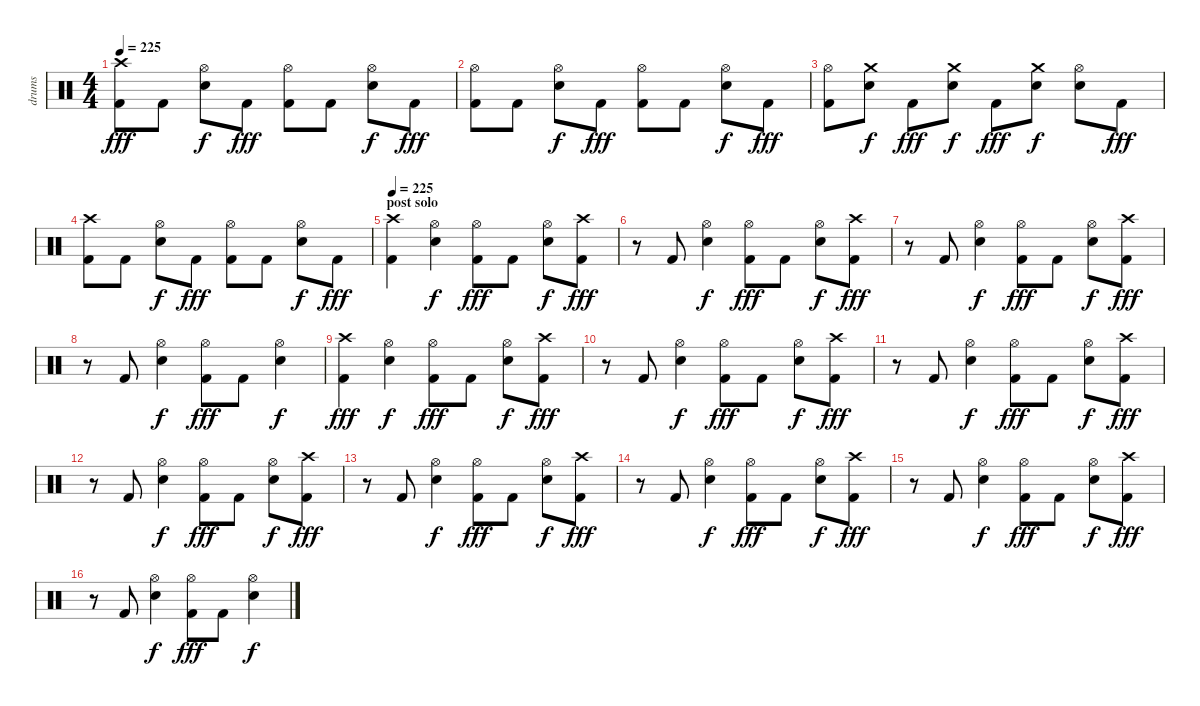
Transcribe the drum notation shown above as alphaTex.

\track ("drums" "drums") {instrument percussion}
\staff {score}
\articulation defaults
\ts (4 4)
\tempo 225
\clef neutral
\ks c
("Crash high (hit)" "Kick (hit) 2").8{dy fff} "Kick (hit) 2".8 ("Hi-Hat (open)" "Snare (hit) 2").8{dy f} "Kick (hit) 2".8{dy fff} ("Hi-Hat (open)" "Kick (hit) 2").8 "Kick (hit) 2".8 ("Hi-Hat (open)" "Snare (hit) 2").8{dy f} "Kick (hit) 2".8{dy fff} |
("Hi-Hat (open)" "Kick (hit) 2").8 "Kick (hit) 2".8 ("Hi-Hat (open)" "Snare (hit) 2").8{dy f} "Kick (hit) 2".8{dy fff} ("Hi-Hat (open)" "Kick (hit) 2").8 "Kick (hit) 2".8 ("Hi-Hat (open)" "Snare (hit) 2").8{dy f} "Kick (hit) 2".8{dy fff} |
("Hi-Hat (open)" "Kick (hit) 2").8 ("Crash medium (hit)" "Snare (hit) 2").8{dy f} "Kick (hit) 2".8{dy fff} ("Crash medium (hit)" "Snare (hit) 2").8{dy f} "Kick (hit) 2".8{dy fff} ("Crash medium (hit)" "Snare (hit) 2").8{dy f} ("Hi-Hat (open)" "Snare (hit) 2").8 "Kick (hit) 2".8{dy fff} |
("Crash high (hit)" "Kick (hit) 2").8 "Kick (hit) 2".8 ("Hi-Hat (open)" "Snare (hit) 2").8{dy f} "Kick (hit) 2".8{dy fff} ("Hi-Hat (open)" "Kick (hit) 2").8 "Kick (hit) 2".8 ("Hi-Hat (open)" "Snare (hit) 2").8{dy f} "Kick (hit) 2".8{dy fff} |
\section ("" "post solo")
\tempo 225
("Crash high (hit)" "Kick (hit) 2").4 ("Hi-Hat (open)" "Snare (hit) 2").4{dy f} ("Hi-Hat (open)" "Kick (hit) 2").8{dy fff} "Kick (hit) 2".8 ("Hi-Hat (open)" "Snare (hit) 2").8{dy f} ("Crash high (hit)" "Kick (hit) 2").8{dy fff} |
r.8 "Kick (hit) 2".8 ("Hi-Hat (open)" "Snare (hit) 2").4{dy f} ("Hi-Hat (open)" "Kick (hit) 2").8{dy fff} "Kick (hit) 2".8 ("Hi-Hat (open)" "Snare (hit) 2").8{dy f} ("Crash high (hit)" "Kick (hit) 2").8{dy fff} |
r.8 "Kick (hit) 2".8 ("Hi-Hat (open)" "Snare (hit) 2").4{dy f} ("Hi-Hat (open)" "Kick (hit) 2").8{dy fff} "Kick (hit) 2".8 ("Hi-Hat (open)" "Snare (hit) 2").8{dy f} ("Crash high (hit)" "Kick (hit) 2").8{dy fff} |
r.8 "Kick (hit) 2".8 ("Hi-Hat (open)" "Snare (hit) 2").4{dy f} ("Hi-Hat (open)" "Kick (hit) 2").8{dy fff} "Kick (hit) 2".8 ("Hi-Hat (open)" "Snare (hit) 2").4{dy f} |
("Crash high (hit)" "Kick (hit) 2").4{dy fff} ("Hi-Hat (open)" "Snare (hit) 2").4{dy f} ("Hi-Hat (open)" "Kick (hit) 2").8{dy fff} "Kick (hit) 2".8 ("Hi-Hat (open)" "Snare (hit) 2").8{dy f} ("Crash high (hit)" "Kick (hit) 2").8{dy fff} |
r.8 "Kick (hit) 2".8 ("Hi-Hat (open)" "Snare (hit) 2").4{dy f} ("Hi-Hat (open)" "Kick (hit) 2").8{dy fff} "Kick (hit) 2".8 ("Hi-Hat (open)" "Snare (hit) 2").8{dy f} ("Crash high (hit)" "Kick (hit) 2").8{dy fff} |
r.8 "Kick (hit) 2".8 ("Hi-Hat (open)" "Snare (hit) 2").4{dy f} ("Hi-Hat (open)" "Kick (hit) 2").8{dy fff} "Kick (hit) 2".8 ("Hi-Hat (open)" "Snare (hit) 2").8{dy f} ("Crash high (hit)" "Kick (hit) 2").8{dy fff} |
r.8 "Kick (hit) 2".8 ("Hi-Hat (open)" "Snare (hit) 2").4{dy f} ("Hi-Hat (open)" "Kick (hit) 2").8{dy fff} "Kick (hit) 2".8 ("Hi-Hat (open)" "Snare (hit) 2").8{dy f} ("Crash high (hit)" "Kick (hit) 2").8{dy fff} |
r.8 "Kick (hit) 2".8 ("Hi-Hat (open)" "Snare (hit) 2").4{dy f} ("Hi-Hat (open)" "Kick (hit) 2").8{dy fff} "Kick (hit) 2".8 ("Hi-Hat (open)" "Snare (hit) 2").8{dy f} ("Crash high (hit)" "Kick (hit) 2").8{dy fff} |
r.8 "Kick (hit) 2".8 ("Hi-Hat (open)" "Snare (hit) 2").4{dy f} ("Hi-Hat (open)" "Kick (hit) 2").8{dy fff} "Kick (hit) 2".8 ("Hi-Hat (open)" "Snare (hit) 2").8{dy f} ("Crash high (hit)" "Kick (hit) 2").8{dy fff} |
r.8 "Kick (hit) 2".8 ("Hi-Hat (open)" "Snare (hit) 2").4{dy f} ("Hi-Hat (open)" "Kick (hit) 2").8{dy fff} "Kick (hit) 2".8 ("Hi-Hat (open)" "Snare (hit) 2").8{dy f} ("Crash high (hit)" "Kick (hit) 2").8{dy fff} |
r.8 "Kick (hit) 2".8 ("Hi-Hat (open)" "Snare (hit) 2").4{dy f} ("Hi-Hat (open)" "Kick (hit) 2").8{dy fff} "Kick (hit) 2".8 ("Hi-Hat (open)" "Snare (hit) 2").4{dy f}
